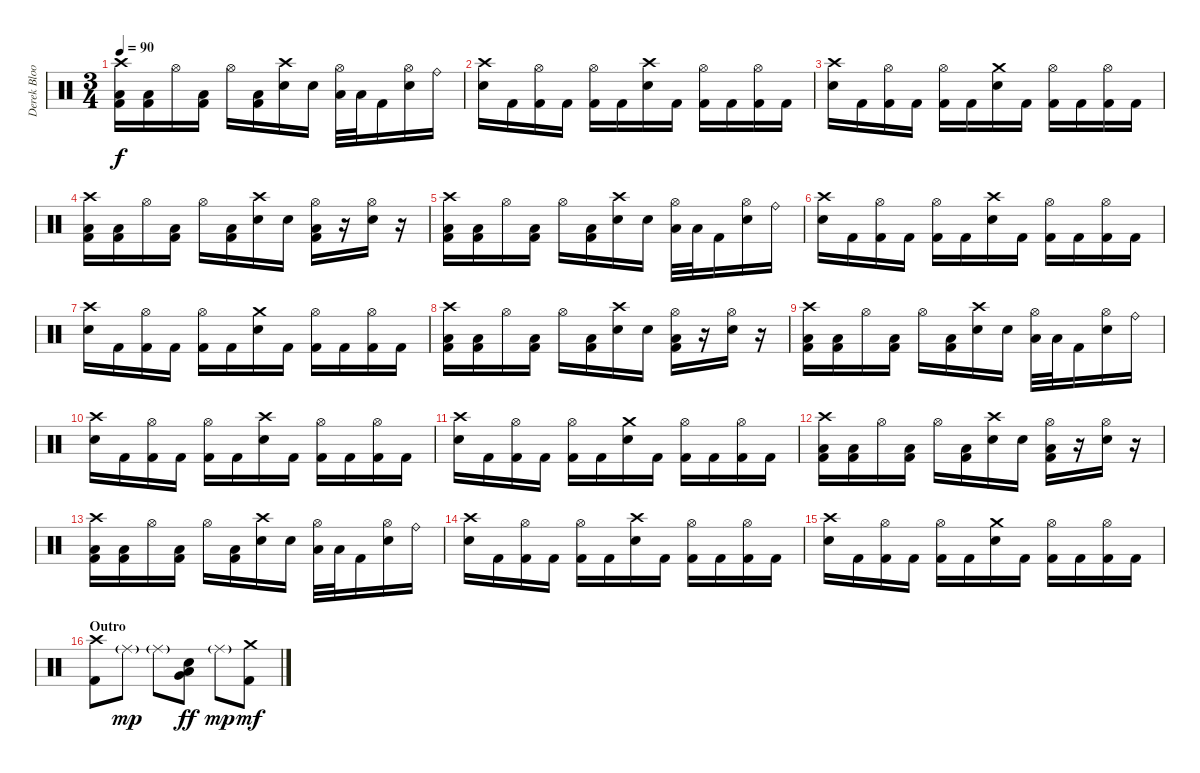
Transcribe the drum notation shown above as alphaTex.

\track ("Derek Bloom (Drums)" "Derek Bloo") {instrument percussion}
\staff {score}
\articulation defaults
\ts (3 4)
\tempo 90
\clef neutral
\ks c
("Crash high (hit)" "Low Floor Tom (hit)" "Kick (hit) 2").16{dy f} ("Low Floor Tom (hit)" "Kick (hit) 2").16 "Hi-Hat (open)".16 ("Low Floor Tom (hit)" "Kick (hit) 2").16 "Hi-Hat (open)".16 ("Low Floor Tom (hit)" "Kick (hit) 2").16 ("Crash high (hit)" "Electric Snare (hit)").16 "Electric Snare (hit)".16 ("Hi-Hat (open)" "Low Tom (hit)").32 "Low Tom (hit)".32 "Kick (hit) 2".16 ("Hi-Hat (open)" "Electric Snare (hit)").16 "Ride (bell)".16 |
("Crash high (hit)" "Electric Snare (hit)").16 "Kick (hit) 2".16 ("Hi-Hat (open)" "Kick (hit) 2").16 "Kick (hit) 2".16 ("Hi-Hat (open)" "Kick (hit) 2").16 "Kick (hit) 2".16 ("Crash high (hit)" "Electric Snare (hit)").16 "Kick (hit) 2".16 ("Hi-Hat (open)" "Kick (hit) 2").16 "Kick (hit) 2".16 ("Hi-Hat (open)" "Kick (hit) 2").16 "Kick (hit) 2".16 |
("Crash high (hit)" "Electric Snare (hit)").16 "Kick (hit) 2".16 ("Hi-Hat (open)" "Kick (hit) 2").16 "Kick (hit) 2".16 ("Hi-Hat (open)" "Kick (hit) 2").16 "Kick (hit) 2".16 ("Crash medium (hit)" "Electric Snare (hit)").16 "Kick (hit) 2".16 ("Hi-Hat (open)" "Kick (hit) 2").16 "Kick (hit) 2".16 ("Hi-Hat (open)" "Kick (hit) 2").16 "Kick (hit) 2".16 |
("Crash high (hit)" "Low Floor Tom (hit)" "Kick (hit) 2").16 ("Low Floor Tom (hit)" "Kick (hit) 2").16 "Hi-Hat (open)".16 ("Low Floor Tom (hit)" "Kick (hit) 2").16 "Hi-Hat (open)".16 ("Low Floor Tom (hit)" "Kick (hit) 2").16 ("Crash high (hit)" "Electric Snare (hit)").16 "Electric Snare (hit)".16 ("Hi-Hat (open)" "Low Floor Tom (hit)" "Kick (hit) 2").16 r.16 ("Hi-Hat (open)" "Electric Snare (hit)").16 r.16 |
("Crash high (hit)" "Low Floor Tom (hit)" "Kick (hit) 2").16 ("Low Floor Tom (hit)" "Kick (hit) 2").16 "Hi-Hat (open)".16 ("Low Floor Tom (hit)" "Kick (hit) 2").16 "Hi-Hat (open)".16 ("Low Floor Tom (hit)" "Kick (hit) 2").16 ("Crash high (hit)" "Electric Snare (hit)").16 "Electric Snare (hit)".16 ("Hi-Hat (open)" "Low Tom (hit)").32 "Low Tom (hit)".32 "Kick (hit) 2".16 ("Hi-Hat (open)" "Electric Snare (hit)").16 "Ride (bell)".16 |
("Crash high (hit)" "Electric Snare (hit)").16 "Kick (hit) 2".16 ("Hi-Hat (open)" "Kick (hit) 2").16 "Kick (hit) 2".16 ("Hi-Hat (open)" "Kick (hit) 2").16 "Kick (hit) 2".16 ("Crash high (hit)" "Electric Snare (hit)").16 "Kick (hit) 2".16 ("Hi-Hat (open)" "Kick (hit) 2").16 "Kick (hit) 2".16 ("Hi-Hat (open)" "Kick (hit) 2").16 "Kick (hit) 2".16 |
("Crash high (hit)" "Electric Snare (hit)").16 "Kick (hit) 2".16 ("Hi-Hat (open)" "Kick (hit) 2").16 "Kick (hit) 2".16 ("Hi-Hat (open)" "Kick (hit) 2").16 "Kick (hit) 2".16 ("Crash medium (hit)" "Electric Snare (hit)").16 "Kick (hit) 2".16 ("Hi-Hat (open)" "Kick (hit) 2").16 "Kick (hit) 2".16 ("Hi-Hat (open)" "Kick (hit) 2").16 "Kick (hit) 2".16 |
("Crash high (hit)" "Low Floor Tom (hit)" "Kick (hit) 2").16 ("Low Floor Tom (hit)" "Kick (hit) 2").16 "Hi-Hat (open)".16 ("Low Floor Tom (hit)" "Kick (hit) 2").16 "Hi-Hat (open)".16 ("Low Floor Tom (hit)" "Kick (hit) 2").16 ("Crash high (hit)" "Electric Snare (hit)").16 "Electric Snare (hit)".16 ("Hi-Hat (open)" "Low Floor Tom (hit)" "Kick (hit) 2").16 r.16 ("Hi-Hat (open)" "Electric Snare (hit)").16 r.16 |
("Crash high (hit)" "Low Floor Tom (hit)" "Kick (hit) 2").16 ("Low Floor Tom (hit)" "Kick (hit) 2").16 "Hi-Hat (open)".16 ("Low Floor Tom (hit)" "Kick (hit) 2").16 "Hi-Hat (open)".16 ("Low Floor Tom (hit)" "Kick (hit) 2").16 ("Crash high (hit)" "Electric Snare (hit)").16 "Electric Snare (hit)".16 ("Hi-Hat (open)" "Low Tom (hit)").32 "Low Tom (hit)".32 "Kick (hit) 2".16 ("Hi-Hat (open)" "Electric Snare (hit)").16 "Ride (bell)".16 |
("Crash high (hit)" "Electric Snare (hit)").16 "Kick (hit) 2".16 ("Hi-Hat (open)" "Kick (hit) 2").16 "Kick (hit) 2".16 ("Hi-Hat (open)" "Kick (hit) 2").16 "Kick (hit) 2".16 ("Crash high (hit)" "Electric Snare (hit)").16 "Kick (hit) 2".16 ("Hi-Hat (open)" "Kick (hit) 2").16 "Kick (hit) 2".16 ("Hi-Hat (open)" "Kick (hit) 2").16 "Kick (hit) 2".16 |
("Crash high (hit)" "Electric Snare (hit)").16 "Kick (hit) 2".16 ("Hi-Hat (open)" "Kick (hit) 2").16 "Kick (hit) 2".16 ("Hi-Hat (open)" "Kick (hit) 2").16 "Kick (hit) 2".16 ("Crash medium (hit)" "Electric Snare (hit)").16 "Kick (hit) 2".16 ("Hi-Hat (open)" "Kick (hit) 2").16 "Kick (hit) 2".16 ("Hi-Hat (open)" "Kick (hit) 2").16 "Kick (hit) 2".16 |
("Crash high (hit)" "Low Floor Tom (hit)" "Kick (hit) 2").16 ("Low Floor Tom (hit)" "Kick (hit) 2").16 "Hi-Hat (open)".16 ("Low Floor Tom (hit)" "Kick (hit) 2").16 "Hi-Hat (open)".16 ("Low Floor Tom (hit)" "Kick (hit) 2").16 ("Crash high (hit)" "Electric Snare (hit)").16 "Electric Snare (hit)".16 ("Hi-Hat (open)" "Low Floor Tom (hit)" "Kick (hit) 2").16 r.16 ("Hi-Hat (open)" "Electric Snare (hit)").16 r.16 |
("Crash high (hit)" "Low Floor Tom (hit)" "Kick (hit) 2").16 ("Low Floor Tom (hit)" "Kick (hit) 2").16 "Hi-Hat (open)".16 ("Low Floor Tom (hit)" "Kick (hit) 2").16 "Hi-Hat (open)".16 ("Low Floor Tom (hit)" "Kick (hit) 2").16 ("Crash high (hit)" "Electric Snare (hit)").16 "Electric Snare (hit)".16 ("Hi-Hat (open)" "Low Tom (hit)").32 "Low Tom (hit)".32 "Kick (hit) 2".16 ("Hi-Hat (open)" "Electric Snare (hit)").16 "Ride (bell)".16 |
("Crash high (hit)" "Electric Snare (hit)").16 "Kick (hit) 2".16 ("Hi-Hat (open)" "Kick (hit) 2").16 "Kick (hit) 2".16 ("Hi-Hat (open)" "Kick (hit) 2").16 "Kick (hit) 2".16 ("Crash high (hit)" "Electric Snare (hit)").16 "Kick (hit) 2".16 ("Hi-Hat (open)" "Kick (hit) 2").16 "Kick (hit) 2".16 ("Hi-Hat (open)" "Kick (hit) 2").16 "Kick (hit) 2".16 |
("Crash high (hit)" "Electric Snare (hit)").16 "Kick (hit) 2".16 ("Hi-Hat (open)" "Kick (hit) 2").16 "Kick (hit) 2".16 ("Hi-Hat (open)" "Kick (hit) 2").16 "Kick (hit) 2".16 ("Crash medium (hit)" "Electric Snare (hit)").16 "Kick (hit) 2".16 ("Hi-Hat (open)" "Kick (hit) 2").16 "Kick (hit) 2".16 ("Hi-Hat (open)" "Kick (hit) 2").16 "Kick (hit) 2".16 |
\section ("" "Outro")
("Crash high (hit)" "Kick (hit) 2").8 "Ride (middle)"{g}.8{dy mp} "Ride (middle)"{g}.8 ("Electric Snare (hit)" "Low Tom (hit)" "Very Low Tom (hit)").8{dy ff} "Ride (middle)"{g}.8{dy mp} ("Crash medium (hit)" "Kick (hit) 2").8{dy mf}
